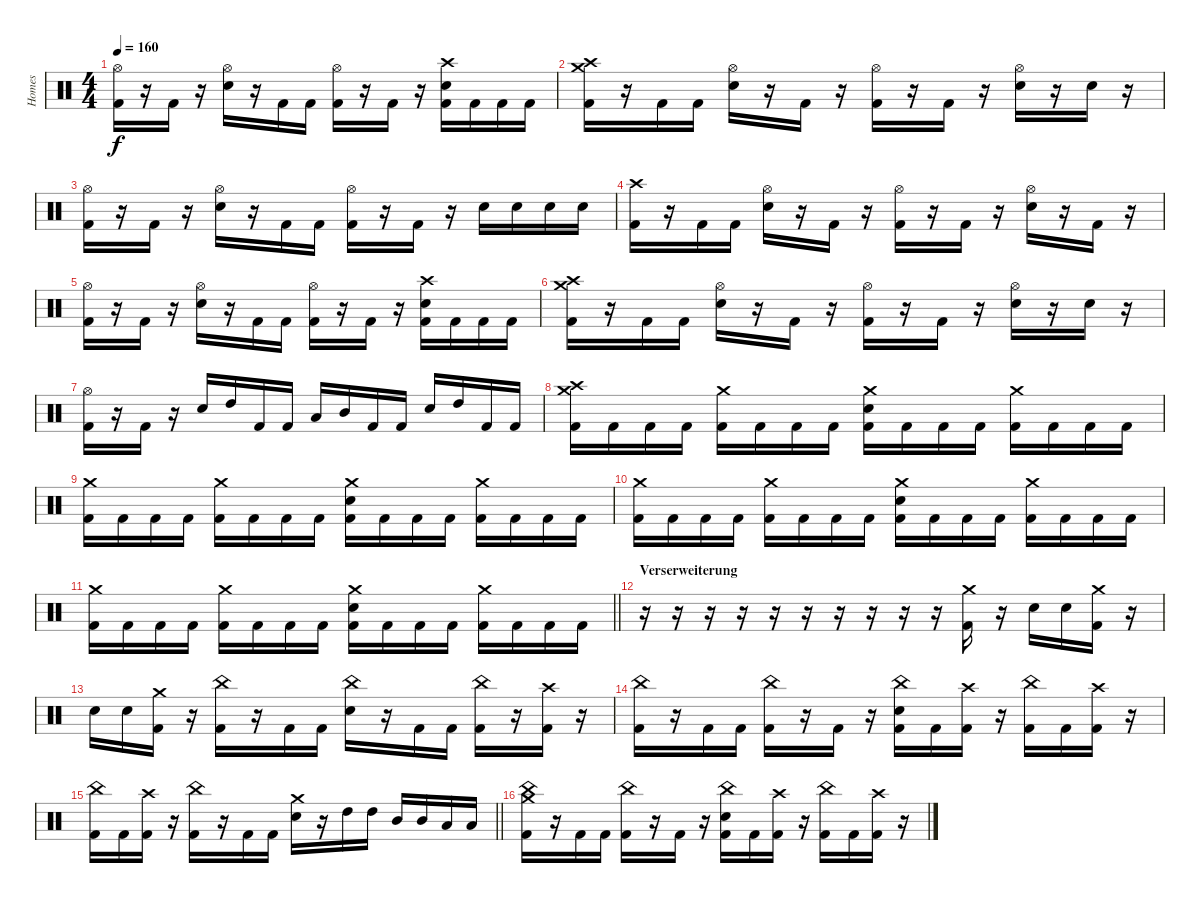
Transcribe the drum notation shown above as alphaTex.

\track ("Homes" "Homes") {instrument percussion}
\staff {score}
\articulation defaults
\ts (4 4)
\tempo 160
\clef neutral
\ks c
("Hi-Hat (open)" "Kick (hit) 2").16{dy f} r.16 "Kick (hit) 2".16 r.16 ("Hi-Hat (open)" "Electric Snare (hit)").16 r.16 "Kick (hit) 2".16 "Kick (hit) 2".16 ("Hi-Hat (open)" "Kick (hit) 2").16 r.16 "Kick (hit) 2".16 r.16 ("Crash high (hit)" "Electric Snare (hit)" "Kick (hit) 2").16 "Kick (hit) 2".16 "Kick (hit) 2".16 "Kick (hit) 2".16 |
("Crash high (hit)" "Crash medium (hit)" "Kick (hit) 2").16 r.16 "Kick (hit) 2".16 "Kick (hit) 2".16 ("Hi-Hat (open)" "Electric Snare (hit)").16 r.16 "Kick (hit) 2".16 r.16 ("Hi-Hat (open)" "Kick (hit) 2").16 r.16 "Kick (hit) 2".16 r.16 ("Hi-Hat (open)" "Electric Snare (hit)").16 r.16 "Electric Snare (hit)".16 r.16 |
("Hi-Hat (open)" "Kick (hit) 2").16 r.16 "Kick (hit) 2".16 r.16 ("Hi-Hat (open)" "Electric Snare (hit)").16 r.16 "Kick (hit) 2".16 "Kick (hit) 2".16 ("Hi-Hat (open)" "Kick (hit) 2").16 r.16 "Kick (hit) 2".16 r.16 "Electric Snare (hit)".16 "Electric Snare (hit)".16 "Electric Snare (hit)".16 "Electric Snare (hit)".16 |
("Crash high (hit)" "Kick (hit) 2").16 r.16 "Kick (hit) 2".16 "Kick (hit) 2".16 ("Hi-Hat (open)" "Electric Snare (hit)").16 r.16 "Kick (hit) 2".16 r.16 ("Hi-Hat (open)" "Kick (hit) 2").16 r.16 "Kick (hit) 2".16 r.16 ("Hi-Hat (open)" "Electric Snare (hit)").16 r.16 "Kick (hit) 2".16 r.16 |
("Hi-Hat (open)" "Kick (hit) 2").16 r.16 "Kick (hit) 2".16 r.16 ("Hi-Hat (open)" "Electric Snare (hit)").16 r.16 "Kick (hit) 2".16 "Kick (hit) 2".16 ("Hi-Hat (open)" "Kick (hit) 2").16 r.16 "Kick (hit) 2".16 r.16 ("Crash high (hit)" "Electric Snare (hit)" "Kick (hit) 2").16 "Kick (hit) 2".16 "Kick (hit) 2".16 "Kick (hit) 2".16 |
("Crash high (hit)" "Crash medium (hit)" "Kick (hit) 2").16 r.16 "Kick (hit) 2".16 "Kick (hit) 2".16 ("Hi-Hat (open)" "Electric Snare (hit)").16 r.16 "Kick (hit) 2".16 r.16 ("Hi-Hat (open)" "Kick (hit) 2").16 r.16 "Kick (hit) 2".16 r.16 ("Hi-Hat (open)" "Electric Snare (hit)").16 r.16 "Electric Snare (hit)".16 r.16 |
("Hi-Hat (open)" "Kick (hit) 2").16 r.16 "Kick (hit) 2".16 r.16 "Electric Snare (hit)".16 "High Tom (hit)".16 "Kick (hit) 2".16 "Kick (hit) 2".16 "Low Tom (hit)".16 "Mid Tom (hit)".16 "Kick (hit) 2".16 "Kick (hit) 2".16 "Electric Snare (hit)".16 "High Tom (hit)".16 "Kick (hit) 2".16 "Kick (hit) 2".16 |
("Crash high (hit)" "Crash medium (hit)" "Kick (hit) 2").16 "Kick (hit) 2".16 "Kick (hit) 2".16 "Kick (hit) 2".16 ("Crash medium (hit)" "Kick (hit) 2").16 "Kick (hit) 2".16 "Kick (hit) 2".16 "Kick (hit) 2".16 ("Crash medium (hit)" "Electric Snare (hit)" "Kick (hit) 2").16 "Kick (hit) 2".16 "Kick (hit) 2".16 "Kick (hit) 2".16 ("Crash medium (hit)" "Kick (hit) 2").16 "Kick (hit) 2".16 "Kick (hit) 2".16 "Kick (hit) 2".16 |
("Crash medium (hit)" "Kick (hit) 2").16 "Kick (hit) 2".16 "Kick (hit) 2".16 "Kick (hit) 2".16 ("Crash medium (hit)" "Kick (hit) 2").16 "Kick (hit) 2".16 "Kick (hit) 2".16 "Kick (hit) 2".16 ("Crash medium (hit)" "Electric Snare (hit)" "Kick (hit) 2").16 "Kick (hit) 2".16 "Kick (hit) 2".16 "Kick (hit) 2".16 ("Crash medium (hit)" "Kick (hit) 2").16 "Kick (hit) 2".16 "Kick (hit) 2".16 "Kick (hit) 2".16 |
("Crash medium (hit)" "Kick (hit) 2").16 "Kick (hit) 2".16 "Kick (hit) 2".16 "Kick (hit) 2".16 ("Crash medium (hit)" "Kick (hit) 2").16 "Kick (hit) 2".16 "Kick (hit) 2".16 "Kick (hit) 2".16 ("Crash medium (hit)" "Electric Snare (hit)" "Kick (hit) 2").16 "Kick (hit) 2".16 "Kick (hit) 2".16 "Kick (hit) 2".16 ("Crash medium (hit)" "Kick (hit) 2").16 "Kick (hit) 2".16 "Kick (hit) 2".16 "Kick (hit) 2".16 |
\barLineRight lightlight
("Crash medium (hit)" "Kick (hit) 2").16 "Kick (hit) 2".16 "Kick (hit) 2".16 "Kick (hit) 2".16 ("Crash medium (hit)" "Kick (hit) 2").16 "Kick (hit) 2".16 "Kick (hit) 2".16 "Kick (hit) 2".16 ("Crash medium (hit)" "Electric Snare (hit)" "Kick (hit) 2").16 "Kick (hit) 2".16 "Kick (hit) 2".16 "Kick (hit) 2".16 ("Crash medium (hit)" "Kick (hit) 2").16 "Kick (hit) 2".16 "Kick (hit) 2".16 "Kick (hit) 2".16 |
\section ("" "Verserweiterung")
r.16 r.16 r.16 r.16 r.16 r.16 r.16 r.16 r.16 r.16 ("Crash medium (hit)" "Kick (hit) 2").16 r.16 "Electric Snare (hit)".16 "Electric Snare (hit)".16 ("Crash medium (hit)" "Kick (hit) 2").16 r.16 |
"Electric Snare (hit)".16 "Electric Snare (hit)".16 ("Crash medium (hit)" "Kick (hit) 2").16 r.16 ("China (hit)" "Kick (hit) 2").16 r.16 "Kick (hit) 2".16 "Kick (hit) 2".16 ("China (hit)" "Electric Snare (hit)").16 r.16 "Kick (hit) 2".16 "Kick (hit) 2".16 ("China (hit)" "Kick (hit) 2").16 r.16 ("Crash high (hit)" "Kick (hit) 2").16 r.16 |
("China (hit)" "Kick (hit) 2").16 r.16 "Kick (hit) 2".16 "Kick (hit) 2".16 ("China (hit)" "Kick (hit) 2").16 r.16 "Kick (hit) 2".16 r.16 ("China (hit)" "Electric Snare (hit)" "Kick (hit) 2").16 "Kick (hit) 2".16 ("Crash high (hit)" "Kick (hit) 2").16 r.16 ("China (hit)" "Kick (hit) 2").16 "Kick (hit) 2".16 ("Crash high (hit)" "Kick (hit) 2").16 r.16 |
\barLineRight lightlight
("China (hit)" "Kick (hit) 2").16 "Kick (hit) 2".16 ("Crash high (hit)" "Kick (hit) 2").16 r.16 ("China (hit)" "Kick (hit) 2").16 r.16 "Kick (hit) 2".16 "Kick (hit) 2".16 ("Crash medium (hit)" "Electric Snare (hit)").16 r.16 "High Tom (hit)".16 "High Tom (hit)".16 "Mid Tom (hit)".16 "Mid Tom (hit)".16 "Low Tom (hit)".16 "Low Tom (hit)".16 |
("China (hit)" "Crash medium (hit)" "Kick (hit) 2").16 r.16 "Kick (hit) 2".16 "Kick (hit) 2".16 ("China (hit)" "Kick (hit) 2").16 r.16 "Kick (hit) 2".16 r.16 ("China (hit)" "Electric Snare (hit)" "Kick (hit) 2").16 "Kick (hit) 2".16 ("Crash high (hit)" "Kick (hit) 2").16 r.16 ("China (hit)" "Kick (hit) 2").16 "Kick (hit) 2".16 ("Crash high (hit)" "Kick (hit) 2").16 r.16
